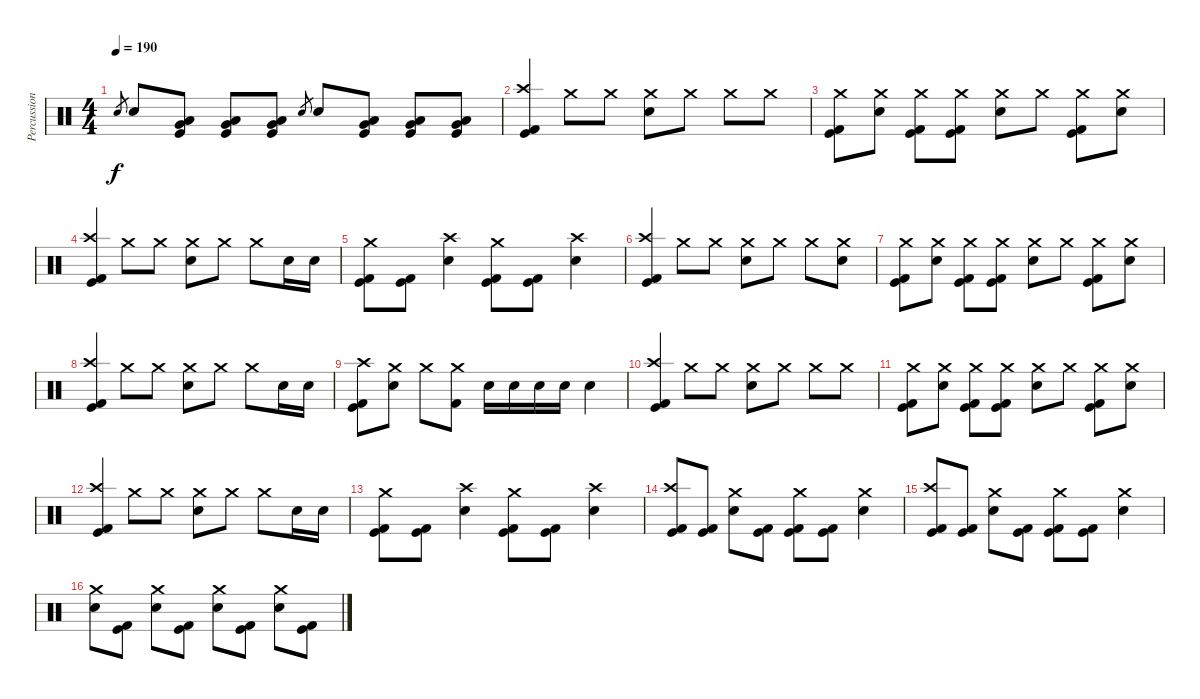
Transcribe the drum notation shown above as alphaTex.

\track ("Percussions" "Percussion") {instrument percussion}
\staff {score}
\articulation defaults
\ts (4 4)
\tempo 190
\clef neutral
\ks c "Electric Snare (hit)".8{gr dy f} "Electric Snare (hit)".8
("Very Low Tom (hit)" "Low Floor Tom (hit)" "Kick (hit)").8 ("Very Low Tom (hit)" "Low Floor Tom (hit)" "Kick (hit)").8 ("Very Low Tom (hit)" "Low Floor Tom (hit)" "Kick (hit)").8 "Electric Snare (hit)".8{gr} "Electric Snare (hit)".8 ("Very Low Tom (hit)" "Low Floor Tom (hit)" "Kick (hit)").8 ("Very Low Tom (hit)" "Low Floor Tom (hit)" "Kick (hit)").8 ("Very Low Tom (hit)" "Low Floor Tom (hit)" "Kick (hit)").8 |
("Crash high (hit)" "Kick (hit)" "Kick (hit) 2").4 "Crash medium (hit)".8 "Crash medium (hit)".8 ("Crash medium (hit)" "Electric Snare (hit)").8 "Crash medium (hit)".8 "Crash medium (hit)".8 "Crash medium (hit)".8 |
("Crash medium (hit)" "Kick (hit)" "Kick (hit) 2").8 ("Crash medium (hit)" "Electric Snare (hit)").8 ("Crash medium (hit)" "Kick (hit)" "Kick (hit) 2").8 ("Crash medium (hit)" "Kick (hit)" "Kick (hit) 2").8 ("Crash medium (hit)" "Electric Snare (hit)").8 "Crash medium (hit)".8 ("Crash medium (hit)" "Kick (hit)" "Kick (hit) 2").8 ("Crash medium (hit)" "Electric Snare (hit)").8 |
("Crash high (hit)" "Kick (hit)" "Kick (hit) 2").4 "Crash medium (hit)".8 "Crash medium (hit)".8 ("Crash medium (hit)" "Electric Snare (hit)").8 "Crash medium (hit)".8 "Crash medium (hit)".8 "Electric Snare (hit)".16 "Electric Snare (hit)".16 |
("Crash medium (hit)" "Kick (hit)" "Kick (hit) 2").8 ("Kick (hit)" "Kick (hit) 2").8 ("Crash high (hit)" "Electric Snare (hit)").4 ("Crash medium (hit)" "Kick (hit)" "Kick (hit) 2").8 ("Kick (hit)" "Kick (hit) 2").8 ("Crash high (hit)" "Electric Snare (hit)").4 |
("Crash high (hit)" "Kick (hit)" "Kick (hit) 2").4 "Crash medium (hit)".8 "Crash medium (hit)".8 ("Crash medium (hit)" "Electric Snare (hit)").8 "Crash medium (hit)".8 "Crash medium (hit)".8 ("Crash medium (hit)" "Electric Snare (hit)").8 |
("Crash medium (hit)" "Kick (hit)" "Kick (hit) 2").8 ("Crash medium (hit)" "Electric Snare (hit)").8 ("Crash medium (hit)" "Kick (hit)" "Kick (hit) 2").8 ("Crash medium (hit)" "Kick (hit)" "Kick (hit) 2").8 ("Crash medium (hit)" "Electric Snare (hit)").8 "Crash medium (hit)".8 ("Crash medium (hit)" "Kick (hit)" "Kick (hit) 2").8 ("Crash medium (hit)" "Electric Snare (hit)").8 |
("Crash high (hit)" "Kick (hit)" "Kick (hit) 2").4 "Crash medium (hit)".8 "Crash medium (hit)".8 ("Crash medium (hit)" "Electric Snare (hit)").8 "Crash medium (hit)".8 "Crash medium (hit)".8 "Electric Snare (hit)".16 "Electric Snare (hit)".16 |
("Crash high (hit)" "Kick (hit)" "Kick (hit) 2").8 ("Crash medium (hit)" "Electric Snare (hit)").8 "Crash medium (hit)".8 ("Crash medium (hit)" "Kick (hit) 2").8 "Electric Snare (hit)".16 "Electric Snare (hit)".16 "Electric Snare (hit)".16 "Electric Snare (hit)".16 "Electric Snare (hit)".4 |
("Crash high (hit)" "Kick (hit)" "Kick (hit) 2").4 "Crash medium (hit)".8 "Crash medium (hit)".8 ("Crash medium (hit)" "Electric Snare (hit)").8 "Crash medium (hit)".8 "Crash medium (hit)".8 "Crash medium (hit)".8 |
("Crash medium (hit)" "Kick (hit)" "Kick (hit) 2").8 ("Crash medium (hit)" "Electric Snare (hit)").8 ("Crash medium (hit)" "Kick (hit)" "Kick (hit) 2").8 ("Crash medium (hit)" "Kick (hit)" "Kick (hit) 2").8 ("Crash medium (hit)" "Electric Snare (hit)").8 "Crash medium (hit)".8 ("Crash medium (hit)" "Kick (hit)" "Kick (hit) 2").8 ("Crash medium (hit)" "Electric Snare (hit)").8 |
("Crash high (hit)" "Kick (hit)" "Kick (hit) 2").4 "Crash medium (hit)".8 "Crash medium (hit)".8 ("Crash medium (hit)" "Electric Snare (hit)").8 "Crash medium (hit)".8 "Crash medium (hit)".8 "Electric Snare (hit)".16 "Electric Snare (hit)".16 |
("Crash medium (hit)" "Kick (hit)" "Kick (hit) 2").8 ("Kick (hit)" "Kick (hit) 2").8 ("Crash high (hit)" "Electric Snare (hit)").4 ("Crash medium (hit)" "Kick (hit)" "Kick (hit) 2").8 ("Kick (hit)" "Kick (hit) 2").8 ("Crash high (hit)" "Electric Snare (hit)").4 |
("Crash high (hit)" "Kick (hit)" "Kick (hit) 2").8 ("Kick (hit)" "Kick (hit) 2").8 ("Crash medium (hit)" "Electric Snare (hit)").8 ("Kick (hit)" "Kick (hit) 2").8 ("Crash medium (hit)" "Kick (hit)" "Kick (hit) 2").8 ("Kick (hit)" "Kick (hit) 2").8 ("Crash medium (hit)" "Electric Snare (hit)").4 |
("Crash high (hit)" "Kick (hit)" "Kick (hit) 2").8 ("Kick (hit)" "Kick (hit) 2").8 ("Crash medium (hit)" "Electric Snare (hit)").8 ("Kick (hit)" "Kick (hit) 2").8 ("Crash medium (hit)" "Kick (hit)" "Kick (hit) 2").8 ("Kick (hit)" "Kick (hit) 2").8 ("Crash medium (hit)" "Electric Snare (hit)").4 |
("Crash medium (hit)" "Electric Snare (hit)").8 ("Kick (hit)" "Kick (hit) 2").8 ("Crash medium (hit)" "Electric Snare (hit)").8 ("Kick (hit)" "Kick (hit) 2").8 ("Crash medium (hit)" "Electric Snare (hit)").8 ("Kick (hit)" "Kick (hit) 2").8 ("Crash medium (hit)" "Electric Snare (hit)").8 ("Kick (hit)" "Kick (hit) 2").8
